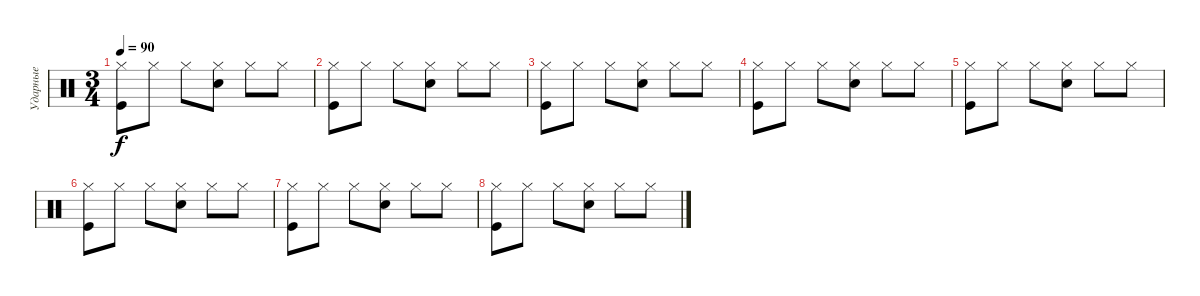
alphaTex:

\track ("Ударные" "Ударные") {instrument percussion}
\staff {score}
\articulation defaults
\ts (3 4)
\tempo 90
\clef neutral
\ks c
("Kick (hit)" "Hi-Hat (closed)").8{dy f} "Hi-Hat (closed)".8 "Hi-Hat (closed)".8 ("Snare (hit) 2" "Hi-Hat (closed)").8 "Hi-Hat (closed)".8 "Hi-Hat (closed)".8 |
("Kick (hit)" "Hi-Hat (closed)").8 "Hi-Hat (closed)".8 "Hi-Hat (closed)".8 ("Snare (hit) 2" "Hi-Hat (closed)").8 "Hi-Hat (closed)".8 "Hi-Hat (closed)".8 |
("Kick (hit)" "Hi-Hat (closed)").8 "Hi-Hat (closed)".8 "Hi-Hat (closed)".8 ("Snare (hit) 2" "Hi-Hat (closed)").8 "Hi-Hat (closed)".8 "Hi-Hat (closed)".8 |
("Kick (hit)" "Hi-Hat (closed)").8 "Hi-Hat (closed)".8 "Hi-Hat (closed)".8 ("Snare (hit) 2" "Hi-Hat (closed)").8 "Hi-Hat (closed)".8 "Hi-Hat (closed)".8 |
("Kick (hit)" "Hi-Hat (closed)").8 "Hi-Hat (closed)".8 "Hi-Hat (closed)".8 ("Snare (hit) 2" "Hi-Hat (closed)").8 "Hi-Hat (closed)".8 "Hi-Hat (closed)".8 |
("Kick (hit)" "Hi-Hat (closed)").8 "Hi-Hat (closed)".8 "Hi-Hat (closed)".8 ("Snare (hit) 2" "Hi-Hat (closed)").8 "Hi-Hat (closed)".8 "Hi-Hat (closed)".8 |
("Kick (hit)" "Hi-Hat (closed)").8 "Hi-Hat (closed)".8 "Hi-Hat (closed)".8 ("Snare (hit) 2" "Hi-Hat (closed)").8 "Hi-Hat (closed)".8 "Hi-Hat (closed)".8 |
("Kick (hit)" "Hi-Hat (closed)").8 "Hi-Hat (closed)".8 "Hi-Hat (closed)".8 ("Snare (hit) 2" "Hi-Hat (closed)").8 "Hi-Hat (closed)".8 "Hi-Hat (closed)".8
